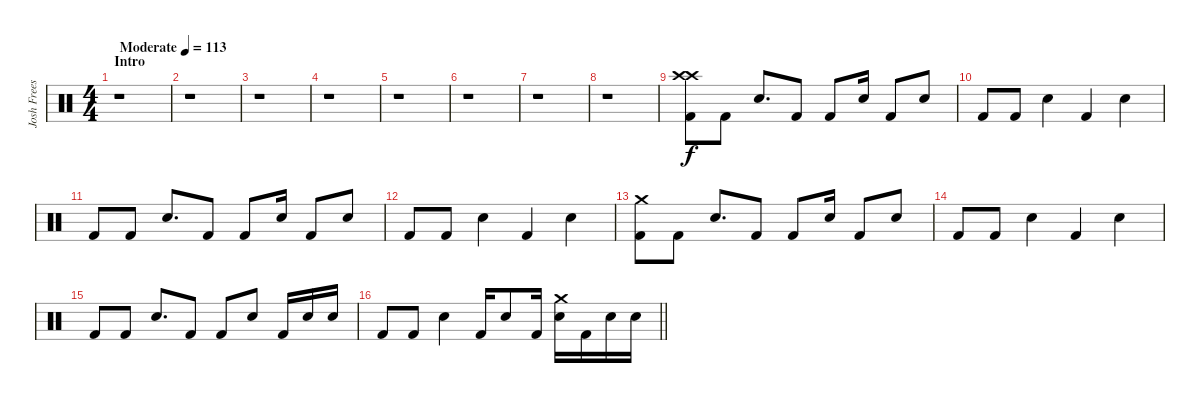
\track ("Josh Freese (Studio Drummer)" "Josh Frees") {instrument percussion}
\staff {score}
\articulation defaults
\ts (4 4)
\section ("" "Intro")
\tempo (113 "Moderate")
\clef neutral
\ks c
r.1{dy f} |
r.1 |
r.1 |
r.1 |
r.1 |
r.1 |
r.1 |
r.1 |
("Crash high (hit)" "Crash high (hit)" "Kick (hit) 2").8 "Kick (hit) 2".8 "Electric Snare (hit)".8{d} "Kick (hit) 2".8 "Kick (hit) 2".8 "Electric Snare (hit)".16 "Kick (hit) 2".8 "Electric Snare (hit)".8 |
"Kick (hit) 2".8 "Kick (hit) 2".8 "Electric Snare (hit)".4 "Kick (hit) 2".4 "Electric Snare (hit)".4 |
"Kick (hit) 2".8 "Kick (hit) 2".8 "Electric Snare (hit)".8{d} "Kick (hit) 2".8 "Kick (hit) 2".8 "Electric Snare (hit)".16 "Kick (hit) 2".8 "Electric Snare (hit)".8 |
"Kick (hit) 2".8 "Kick (hit) 2".8 "Electric Snare (hit)".4 "Kick (hit) 2".4 "Electric Snare (hit)".4 |
("Crash medium (hit)" "Kick (hit) 2").8 "Kick (hit) 2".8 "Electric Snare (hit)".8{d} "Kick (hit) 2".8 "Kick (hit) 2".8 "Electric Snare (hit)".16 "Kick (hit) 2".8 "Electric Snare (hit)".8 |
"Kick (hit) 2".8 "Kick (hit) 2".8 "Electric Snare (hit)".4 "Kick (hit) 2".4 "Electric Snare (hit)".4 |
"Kick (hit) 2".8 "Kick (hit) 2".8 "Electric Snare (hit)".8{d} "Kick (hit) 2".8 "Kick (hit) 2".8 "Electric Snare (hit)".8 "Kick (hit) 2".16 "Electric Snare (hit)".16 "Electric Snare (hit)".16 |
\barLineRight lightlight "Kick (hit) 2".8 "Kick (hit) 2".8 "Electric Snare (hit)".4 "Kick (hit) 2".16 "Electric Snare (hit)".8 "Kick (hit) 2".16
("Crash medium (hit)" "Electric Snare (hit)").16 "Kick (hit) 2".16 "Electric Snare (hit)".16 "Electric Snare (hit)".16
